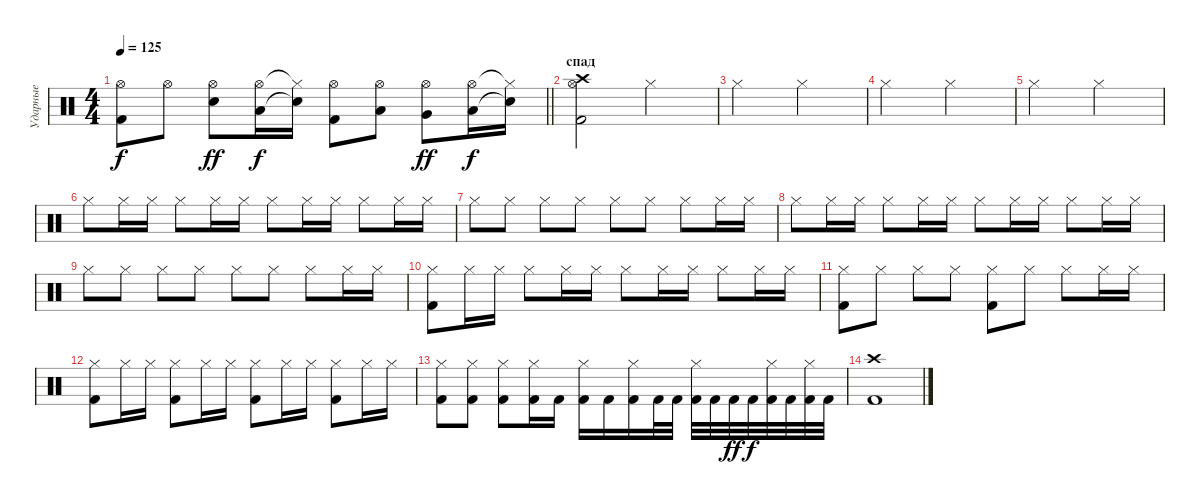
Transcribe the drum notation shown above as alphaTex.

\track ("Ударные" "Ударные") {instrument percussion}
\staff {score}
\articulation defaults
\ts (4 4)
\tempo 125
\clef neutral
\barLineRight lightlight
\ks c
("Hi-Hat (open)" "Kick (hit) 2").8{dy f} "Hi-Hat (open)".8 ("Hi-Hat (open)" "Electric Snare (hit)").8{dy ff} ("Hi-Hat (open)" "Low Tom (hit)").16{dy f} ("Hi-Hat (closed)"{t} "Snare (hit)"{t}).16 ("Hi-Hat (open)" "Kick (hit) 2").8 ("Hi-Hat (open)" "Low Tom (hit)").8 ("Hi-Hat (open)" "Very Low Tom (hit)").8{dy ff} ("Hi-Hat (open)" "Low Tom (hit)").16{dy f} ("Hi-Hat (closed)"{t} "Snare (hit)"{t}).16 |
\section ("" "спад")
("Crash high (hit)" "Hi-Hat (open)" "Kick (hit) 2").2 "Hi-Hat (closed)".2 |
"Hi-Hat (closed)".2 "Hi-Hat (closed)".2 |
"Hi-Hat (closed)".2 "Hi-Hat (closed)".2 |
"Hi-Hat (closed)".2 "Hi-Hat (closed)".2 |
"Hi-Hat (closed)".8 "Hi-Hat (closed)".16 "Hi-Hat (closed)".16 "Hi-Hat (closed)".8 "Hi-Hat (closed)".16 "Hi-Hat (closed)".16 "Hi-Hat (closed)".8 "Hi-Hat (closed)".16 "Hi-Hat (closed)".16 "Hi-Hat (closed)".8 "Hi-Hat (closed)".16 "Hi-Hat (closed)".16 |
"Hi-Hat (closed)".8 "Hi-Hat (closed)".8 "Hi-Hat (closed)".8 "Hi-Hat (closed)".8 "Hi-Hat (closed)".8 "Hi-Hat (closed)".8 "Hi-Hat (closed)".8 "Hi-Hat (closed)".16 "Hi-Hat (closed)".16 |
"Hi-Hat (closed)".8 "Hi-Hat (closed)".16 "Hi-Hat (closed)".16 "Hi-Hat (closed)".8 "Hi-Hat (closed)".16 "Hi-Hat (closed)".16 "Hi-Hat (closed)".8 "Hi-Hat (closed)".16 "Hi-Hat (closed)".16 "Hi-Hat (closed)".8 "Hi-Hat (closed)".16 "Hi-Hat (closed)".16 |
"Hi-Hat (closed)".8 "Hi-Hat (closed)".8 "Hi-Hat (closed)".8 "Hi-Hat (closed)".8 "Hi-Hat (closed)".8 "Hi-Hat (closed)".8 "Hi-Hat (closed)".8 "Hi-Hat (closed)".16 "Hi-Hat (closed)".16 |
("Hi-Hat (closed)" "Kick (hit) 2").8 "Hi-Hat (closed)".16 "Hi-Hat (closed)".16 "Hi-Hat (closed)".8 "Hi-Hat (closed)".16 "Hi-Hat (closed)".16 "Hi-Hat (closed)".8 "Hi-Hat (closed)".16 "Hi-Hat (closed)".16 "Hi-Hat (closed)".8 "Hi-Hat (closed)".16 "Hi-Hat (closed)".16 |
("Hi-Hat (closed)" "Kick (hit) 2").8 "Hi-Hat (closed)".8 "Hi-Hat (closed)".8 "Hi-Hat (closed)".8 ("Hi-Hat (closed)" "Kick (hit) 2").8 "Hi-Hat (closed)".8 "Hi-Hat (closed)".8 "Hi-Hat (closed)".16 "Hi-Hat (closed)".16 |
("Hi-Hat (closed)" "Kick (hit) 2").8 "Hi-Hat (closed)".16 "Hi-Hat (closed)".16 ("Hi-Hat (closed)" "Kick (hit) 2").8 "Hi-Hat (closed)".16 "Hi-Hat (closed)".16 ("Hi-Hat (closed)" "Kick (hit) 2").8 "Hi-Hat (closed)".16 "Hi-Hat (closed)".16 ("Hi-Hat (closed)" "Kick (hit) 2").8 "Hi-Hat (closed)".16 "Hi-Hat (closed)".16 |
("Hi-Hat (closed)" "Kick (hit) 2").8 ("Hi-Hat (closed)" "Kick (hit) 2").8 ("Hi-Hat (closed)" "Kick (hit) 2").8 ("Hi-Hat (closed)" "Kick (hit) 2").16 "Kick (hit) 2".16 ("Hi-Hat (closed)" "Kick (hit) 2").16 "Kick (hit) 2".16 ("Hi-Hat (closed)" "Kick (hit) 2").16 "Kick (hit) 2".32 "Kick (hit) 2".32 ("Hi-Hat (closed)" "Kick (hit) 2").32 "Kick (hit) 2".32 "Kick (hit) 2".32{dy ff} "Kick (hit) 2".32{dy f} ("Hi-Hat (closed)" "Kick (hit) 2").32 "Kick (hit) 2".32 ("Hi-Hat (closed)" "Kick (hit) 2").32 "Kick (hit) 2".32 |
("Crash high (hit)" "Kick (hit) 2").1
